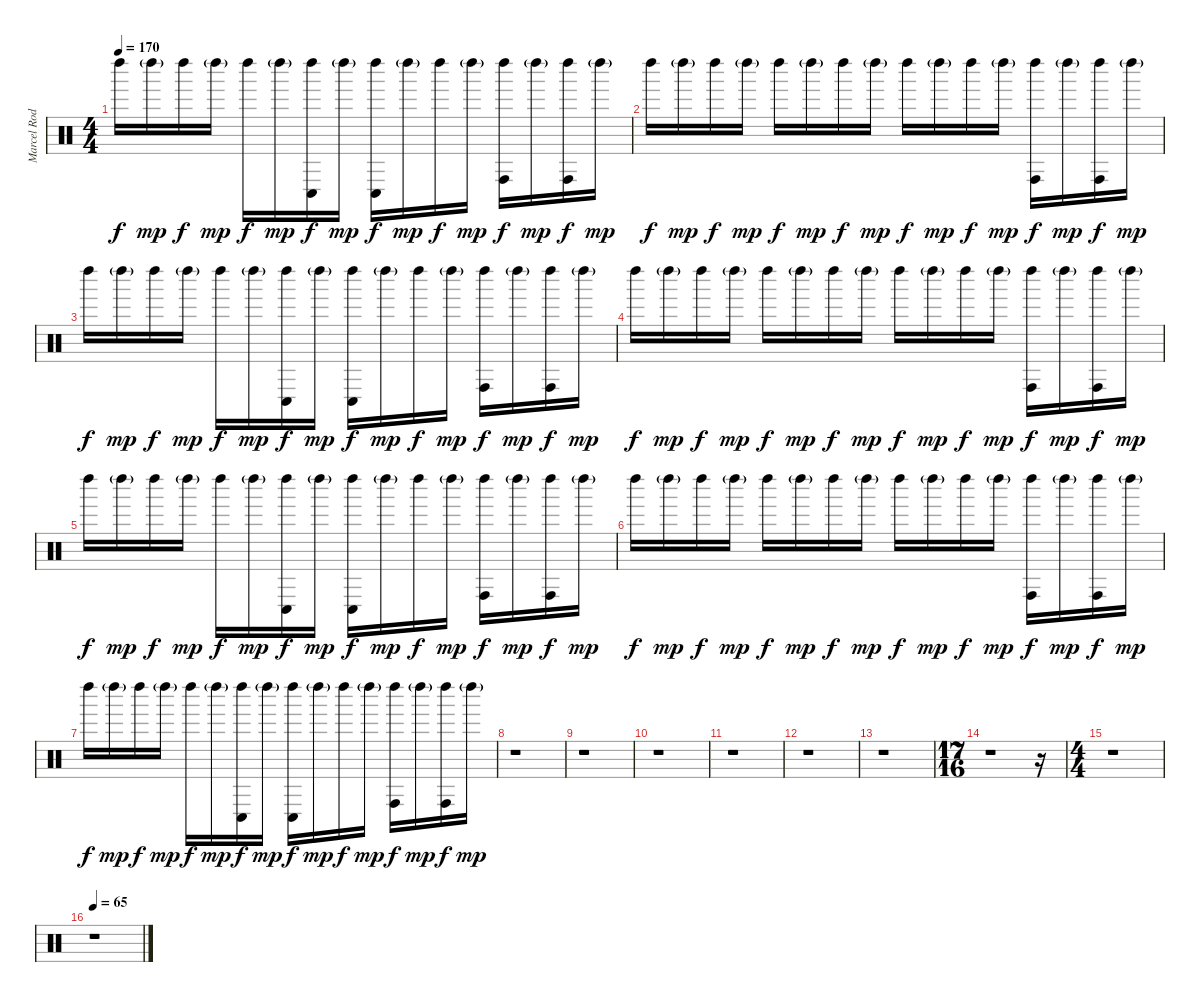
\track ("Marcel Rodriguez-Lopez/Adrian Terrazas [" "Marcel Rod") {instrument percussion}
\staff {score}
\articulation defaults
\ts (4 4)
\tempo 170
\clef neutral
\ks c "Left Maraca (hit)".16{dy f} "Left Maraca (hit)"{g}.16{dy mp} "Left Maraca (hit)".16{dy f} "Left Maraca (hit)"{g}.16{dy mp} "Left Maraca (hit)".16{dy f} "Left Maraca (hit)"{g}.16{dy mp}
("Left Maraca (hit)" "Conga low (hit)").16{dy f} "Left Maraca (hit)"{g}.16{dy mp} ("Left Maraca (hit)" "Conga low (hit)").16{dy f} "Left Maraca (hit)"{g}.16{dy mp} "Left Maraca (hit)".16{dy f} "Left Maraca (hit)"{g}.16{dy mp} ("Left Maraca (hit)" "Conga high (hit)").16{dy f} "Left Maraca (hit)"{g}.16{dy mp} ("Left Maraca (hit)" "Conga high (hit)").16{dy f} "Left Maraca (hit)"{g}.16{dy mp} |
"Left Maraca (hit)".16{dy f} "Left Maraca (hit)"{g}.16{dy mp} "Left Maraca (hit)".16{dy f} "Left Maraca (hit)"{g}.16{dy mp} "Left Maraca (hit)".16{dy f} "Left Maraca (hit)"{g}.16{dy mp} "Left Maraca (hit)".16{dy f} "Left Maraca (hit)"{g}.16{dy mp} "Left Maraca (hit)".16{dy f} "Left Maraca (hit)"{g}.16{dy mp} "Left Maraca (hit)".16{dy f} "Left Maraca (hit)"{g}.16{dy mp} ("Left Maraca (hit)" "Conga high (hit)").16{dy f} "Left Maraca (hit)"{g}.16{dy mp} ("Left Maraca (hit)" "Conga high (hit)").16{dy f} "Left Maraca (hit)"{g}.16{dy mp} |
"Left Maraca (hit)".16{dy f} "Left Maraca (hit)"{g}.16{dy mp} "Left Maraca (hit)".16{dy f} "Left Maraca (hit)"{g}.16{dy mp} "Left Maraca (hit)".16{dy f} "Left Maraca (hit)"{g}.16{dy mp} ("Left Maraca (hit)" "Conga low (hit)").16{dy f} "Left Maraca (hit)"{g}.16{dy mp} ("Left Maraca (hit)" "Conga low (hit)").16{dy f} "Left Maraca (hit)"{g}.16{dy mp} "Left Maraca (hit)".16{dy f} "Left Maraca (hit)"{g}.16{dy mp} ("Left Maraca (hit)" "Conga high (hit)").16{dy f} "Left Maraca (hit)"{g}.16{dy mp} ("Left Maraca (hit)" "Conga high (hit)").16{dy f} "Left Maraca (hit)"{g}.16{dy mp} |
"Left Maraca (hit)".16{dy f} "Left Maraca (hit)"{g}.16{dy mp} "Left Maraca (hit)".16{dy f} "Left Maraca (hit)"{g}.16{dy mp} "Left Maraca (hit)".16{dy f} "Left Maraca (hit)"{g}.16{dy mp} "Left Maraca (hit)".16{dy f} "Left Maraca (hit)"{g}.16{dy mp} "Left Maraca (hit)".16{dy f} "Left Maraca (hit)"{g}.16{dy mp} "Left Maraca (hit)".16{dy f} "Left Maraca (hit)"{g}.16{dy mp} ("Left Maraca (hit)" "Conga high (hit)").16{dy f} "Left Maraca (hit)"{g}.16{dy mp} ("Left Maraca (hit)" "Conga high (hit)").16{dy f} "Left Maraca (hit)"{g}.16{dy mp} |
"Left Maraca (hit)".16{dy f} "Left Maraca (hit)"{g}.16{dy mp} "Left Maraca (hit)".16{dy f} "Left Maraca (hit)"{g}.16{dy mp} "Left Maraca (hit)".16{dy f} "Left Maraca (hit)"{g}.16{dy mp} ("Left Maraca (hit)" "Conga low (hit)").16{dy f} "Left Maraca (hit)"{g}.16{dy mp} ("Left Maraca (hit)" "Conga low (hit)").16{dy f} "Left Maraca (hit)"{g}.16{dy mp} "Left Maraca (hit)".16{dy f} "Left Maraca (hit)"{g}.16{dy mp} ("Left Maraca (hit)" "Conga high (hit)").16{dy f} "Left Maraca (hit)"{g}.16{dy mp} ("Left Maraca (hit)" "Conga high (hit)").16{dy f} "Left Maraca (hit)"{g}.16{dy mp} |
"Left Maraca (hit)".16{dy f} "Left Maraca (hit)"{g}.16{dy mp} "Left Maraca (hit)".16{dy f} "Left Maraca (hit)"{g}.16{dy mp} "Left Maraca (hit)".16{dy f} "Left Maraca (hit)"{g}.16{dy mp} "Left Maraca (hit)".16{dy f} "Left Maraca (hit)"{g}.16{dy mp} "Left Maraca (hit)".16{dy f} "Left Maraca (hit)"{g}.16{dy mp} "Left Maraca (hit)".16{dy f} "Left Maraca (hit)"{g}.16{dy mp} ("Left Maraca (hit)" "Conga high (hit)").16{dy f} "Left Maraca (hit)"{g}.16{dy mp} ("Left Maraca (hit)" "Conga high (hit)").16{dy f} "Left Maraca (hit)"{g}.16{dy mp} |
"Left Maraca (hit)".16{dy f} "Left Maraca (hit)"{g}.16{dy mp} "Left Maraca (hit)".16{dy f} "Left Maraca (hit)"{g}.16{dy mp} "Left Maraca (hit)".16{dy f} "Left Maraca (hit)"{g}.16{dy mp} ("Left Maraca (hit)" "Conga low (hit)").16{dy f} "Left Maraca (hit)"{g}.16{dy mp} ("Left Maraca (hit)" "Conga low (hit)").16{dy f} "Left Maraca (hit)"{g}.16{dy mp} "Left Maraca (hit)".16{dy f} "Left Maraca (hit)"{g}.16{dy mp} ("Left Maraca (hit)" "Conga high (hit)").16{dy f} "Left Maraca (hit)"{g}.16{dy mp} ("Left Maraca (hit)" "Conga high (hit)").16{dy f} "Left Maraca (hit)"{g}.16{dy mp} |
r.1 |
r.1 |
r.1 |
r.1 |
r.1 |
r.1 |
\ts (17 16)
r.1 r.16 |
\ts (4 4)
r.1 |
\tempo 65
r.1
